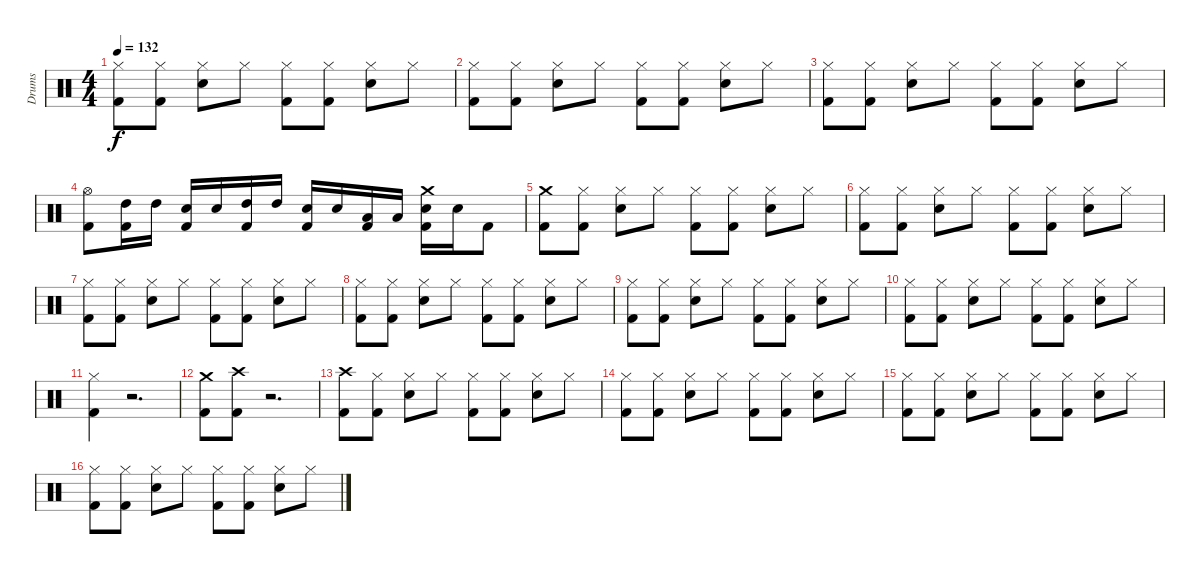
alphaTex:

\track ("Drums" "Drums") {instrument percussion}
\staff {score}
\articulation defaults
\ts (4 4)
\tempo 132
\clef neutral
\ks c
("Kick (hit) 2" "Hi-Hat (closed)").8{dy f} ("Kick (hit) 2" "Hi-Hat (closed)").8 ("Snare (hit) 2" "Hi-Hat (closed)").8 "Hi-Hat (closed)".8 ("Kick (hit) 2" "Hi-Hat (closed)").8 ("Kick (hit) 2" "Hi-Hat (closed)").8 ("Snare (hit) 2" "Hi-Hat (closed)").8 "Hi-Hat (closed)".8 |
("Kick (hit) 2" "Hi-Hat (closed)").8 ("Kick (hit) 2" "Hi-Hat (closed)").8 ("Snare (hit) 2" "Hi-Hat (closed)").8 "Hi-Hat (closed)".8 ("Kick (hit) 2" "Hi-Hat (closed)").8 ("Kick (hit) 2" "Hi-Hat (closed)").8 ("Snare (hit) 2" "Hi-Hat (closed)").8 "Hi-Hat (closed)".8 |
("Kick (hit) 2" "Hi-Hat (closed)").8 ("Kick (hit) 2" "Hi-Hat (closed)").8 ("Snare (hit) 2" "Hi-Hat (closed)").8 "Hi-Hat (closed)".8 ("Kick (hit) 2" "Hi-Hat (closed)").8 ("Kick (hit) 2" "Hi-Hat (closed)").8 ("Snare (hit) 2" "Hi-Hat (closed)").8 "Hi-Hat (closed)".8 |
("Kick (hit) 2" "Hi-Hat (open)").8 ("Kick (hit) 2" "High Tom (hit)").16 "High Tom (hit)".16 ("Kick (hit) 2" "Snare (hit) 2").16 "Snare (hit) 2".16 ("Kick (hit) 2" "High Tom (hit)").16 "High Tom (hit)".16 ("Kick (hit) 2" "Snare (hit) 2").16 "Snare (hit) 2".16 ("Kick (hit) 2" "Low Tom (hit)").16 "Low Tom (hit)".16 ("Kick (hit) 2" "Snare (hit) 2" "Crash medium (hit)").16 "Snare (hit) 2".16 "Kick (hit) 2".8 |
("Kick (hit) 2" "Crash medium (hit)").8 ("Kick (hit) 2" "Hi-Hat (closed)").8 ("Snare (hit) 2" "Hi-Hat (closed)").8 "Hi-Hat (closed)".8 ("Kick (hit) 2" "Hi-Hat (closed)").8 ("Kick (hit) 2" "Hi-Hat (closed)").8 ("Snare (hit) 2" "Hi-Hat (closed)").8 "Hi-Hat (closed)".8 |
("Kick (hit) 2" "Hi-Hat (closed)").8 ("Kick (hit) 2" "Hi-Hat (closed)").8 ("Snare (hit) 2" "Hi-Hat (closed)").8 "Hi-Hat (closed)".8 ("Kick (hit) 2" "Hi-Hat (closed)").8 ("Kick (hit) 2" "Hi-Hat (closed)").8 ("Snare (hit) 2" "Hi-Hat (closed)").8 "Hi-Hat (closed)".8 |
("Kick (hit) 2" "Hi-Hat (closed)").8 ("Kick (hit) 2" "Hi-Hat (closed)").8 ("Snare (hit) 2" "Hi-Hat (closed)").8 "Hi-Hat (closed)".8 ("Kick (hit) 2" "Hi-Hat (closed)").8 ("Kick (hit) 2" "Hi-Hat (closed)").8 ("Snare (hit) 2" "Hi-Hat (closed)").8 "Hi-Hat (closed)".8 |
("Kick (hit) 2" "Hi-Hat (closed)").8 ("Kick (hit) 2" "Hi-Hat (closed)").8 ("Snare (hit) 2" "Hi-Hat (closed)").8 "Hi-Hat (closed)".8 ("Kick (hit) 2" "Hi-Hat (closed)").8 ("Kick (hit) 2" "Hi-Hat (closed)").8 ("Snare (hit) 2" "Hi-Hat (closed)").8 "Hi-Hat (closed)".8 |
("Kick (hit) 2" "Hi-Hat (closed)").8 ("Kick (hit) 2" "Hi-Hat (closed)").8 ("Snare (hit) 2" "Hi-Hat (closed)").8 "Hi-Hat (closed)".8 ("Kick (hit) 2" "Hi-Hat (closed)").8 ("Kick (hit) 2" "Hi-Hat (closed)").8 ("Snare (hit) 2" "Hi-Hat (closed)").8 "Hi-Hat (closed)".8 |
("Kick (hit) 2" "Hi-Hat (closed)").8 ("Kick (hit) 2" "Hi-Hat (closed)").8 ("Snare (hit) 2" "Hi-Hat (closed)").8 "Hi-Hat (closed)".8 ("Kick (hit) 2" "Hi-Hat (closed)").8 ("Kick (hit) 2" "Hi-Hat (closed)").8 ("Snare (hit) 2" "Hi-Hat (closed)").8 "Hi-Hat (closed)".8 |
("Kick (hit) 2" "Hi-Hat (closed)").4 r.2{d} |
("Kick (hit) 2" "Crash medium (hit)").8 ("Kick (hit) 2" "Crash high (hit)").8 r.2{d} |
("Kick (hit) 2" "Crash high (hit)").8 ("Kick (hit) 2" "Hi-Hat (closed)").8 ("Snare (hit) 2" "Hi-Hat (closed)").8 "Hi-Hat (closed)".8 ("Kick (hit) 2" "Hi-Hat (closed)").8 ("Kick (hit) 2" "Hi-Hat (closed)").8 ("Snare (hit) 2" "Hi-Hat (closed)").8 "Hi-Hat (closed)".8 |
("Kick (hit) 2" "Hi-Hat (closed)").8 ("Kick (hit) 2" "Hi-Hat (closed)").8 ("Snare (hit) 2" "Hi-Hat (closed)").8 "Hi-Hat (closed)".8 ("Kick (hit) 2" "Hi-Hat (closed)").8 ("Kick (hit) 2" "Hi-Hat (closed)").8 ("Snare (hit) 2" "Hi-Hat (closed)").8 "Hi-Hat (closed)".8 |
("Kick (hit) 2" "Hi-Hat (closed)").8 ("Kick (hit) 2" "Hi-Hat (closed)").8 ("Snare (hit) 2" "Hi-Hat (closed)").8 "Hi-Hat (closed)".8 ("Kick (hit) 2" "Hi-Hat (closed)").8 ("Kick (hit) 2" "Hi-Hat (closed)").8 ("Snare (hit) 2" "Hi-Hat (closed)").8 "Hi-Hat (closed)".8 |
("Kick (hit) 2" "Hi-Hat (closed)").8 ("Kick (hit) 2" "Hi-Hat (closed)").8 ("Snare (hit) 2" "Hi-Hat (closed)").8 "Hi-Hat (closed)".8 ("Kick (hit) 2" "Hi-Hat (closed)").8 ("Kick (hit) 2" "Hi-Hat (closed)").8 ("Snare (hit) 2" "Hi-Hat (closed)").8 "Hi-Hat (closed)".8
